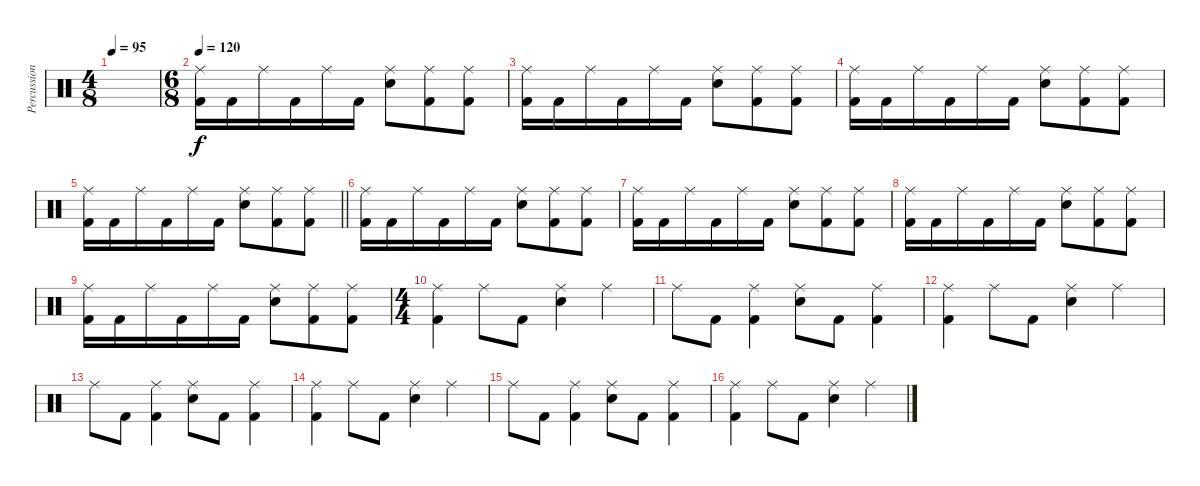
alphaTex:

\track ("Percussion" "Percussion") {instrument percussion}
\staff {score}
\articulation defaults
\ts (4 8)
\tempo 95
\clef neutral
\ks c
|
\ts (6 8)
\tempo 120
("Ride (middle)" "Kick (hit) 2").16 "Kick (hit) 2".16 "Ride (middle)".16 "Kick (hit) 2".16 "Ride (middle)".16 "Kick (hit) 2".16 ("Ride (middle)" "Electric Snare (hit)").8 ("Ride (middle)" "Kick (hit) 2").8 ("Ride (middle)" "Kick (hit) 2").8 |
("Ride (middle)" "Kick (hit) 2").16 "Kick (hit) 2".16 "Ride (middle)".16 "Kick (hit) 2".16 "Ride (middle)".16 "Kick (hit) 2".16 ("Ride (middle)" "Electric Snare (hit)").8 ("Ride (middle)" "Kick (hit) 2").8 ("Ride (middle)" "Kick (hit) 2").8 |
("Ride (middle)" "Kick (hit) 2").16 "Kick (hit) 2".16 "Ride (middle)".16 "Kick (hit) 2".16 "Ride (middle)".16 "Kick (hit) 2".16 ("Ride (middle)" "Electric Snare (hit)").8 ("Ride (middle)" "Kick (hit) 2").8 ("Ride (middle)" "Kick (hit) 2").8 |
\barLineRight lightlight
("Ride (middle)" "Kick (hit) 2").16 "Kick (hit) 2".16 "Ride (middle)".16 "Kick (hit) 2".16 "Ride (middle)".16 "Kick (hit) 2".16 ("Ride (middle)" "Electric Snare (hit)").8 ("Ride (middle)" "Kick (hit) 2").8 ("Ride (middle)" "Kick (hit) 2").8 |
("Ride (middle)" "Kick (hit) 2").16 "Kick (hit) 2".16 "Ride (middle)".16 "Kick (hit) 2".16 "Ride (middle)".16 "Kick (hit) 2".16 ("Ride (middle)" "Electric Snare (hit)").8 ("Ride (middle)" "Kick (hit) 2").8 ("Ride (middle)" "Kick (hit) 2").8 |
("Ride (middle)" "Kick (hit) 2").16 "Kick (hit) 2".16 "Ride (middle)".16 "Kick (hit) 2".16 "Ride (middle)".16 "Kick (hit) 2".16 ("Ride (middle)" "Electric Snare (hit)").8 ("Ride (middle)" "Kick (hit) 2").8 ("Ride (middle)" "Kick (hit) 2").8 |
("Ride (middle)" "Kick (hit) 2").16 "Kick (hit) 2".16 "Ride (middle)".16 "Kick (hit) 2".16 "Ride (middle)".16 "Kick (hit) 2".16 ("Ride (middle)" "Electric Snare (hit)").8 ("Ride (middle)" "Kick (hit) 2").8 ("Ride (middle)" "Kick (hit) 2").8 |
("Ride (middle)" "Kick (hit) 2").16 "Kick (hit) 2".16 "Ride (middle)".16 "Kick (hit) 2".16 "Ride (middle)".16 "Kick (hit) 2".16 ("Ride (middle)" "Electric Snare (hit)").8 ("Ride (middle)" "Kick (hit) 2").8 ("Ride (middle)" "Kick (hit) 2").8 |
\ts (4 4)
("Ride (middle)" "Kick (hit) 2").4 "Ride (middle)".8 "Kick (hit) 2".8 ("Ride (middle)" "Electric Snare (hit)").4 "Ride (middle)".4 |
"Ride (middle)".8 "Kick (hit) 2".8 ("Ride (middle)" "Kick (hit) 2").4 ("Ride (middle)" "Electric Snare (hit)").8 "Kick (hit) 2".8 ("Ride (middle)" "Kick (hit) 2").4 |
("Ride (middle)" "Kick (hit) 2").4 "Ride (middle)".8 "Kick (hit) 2".8 ("Ride (middle)" "Electric Snare (hit)").4 "Ride (middle)".4 |
"Ride (middle)".8 "Kick (hit) 2".8 ("Ride (middle)" "Kick (hit) 2").4 ("Ride (middle)" "Electric Snare (hit)").8 "Kick (hit) 2".8 ("Ride (middle)" "Kick (hit) 2").4 |
("Ride (middle)" "Kick (hit) 2").4 "Ride (middle)".8 "Kick (hit) 2".8 ("Ride (middle)" "Electric Snare (hit)").4 "Ride (middle)".4 |
"Ride (middle)".8 "Kick (hit) 2".8 ("Ride (middle)" "Kick (hit) 2").4 ("Ride (middle)" "Electric Snare (hit)").8 "Kick (hit) 2".8 ("Ride (middle)" "Kick (hit) 2").4 |
("Ride (middle)" "Kick (hit) 2").4 "Ride (middle)".8 "Kick (hit) 2".8 ("Ride (middle)" "Electric Snare (hit)").4 "Ride (middle)".4
